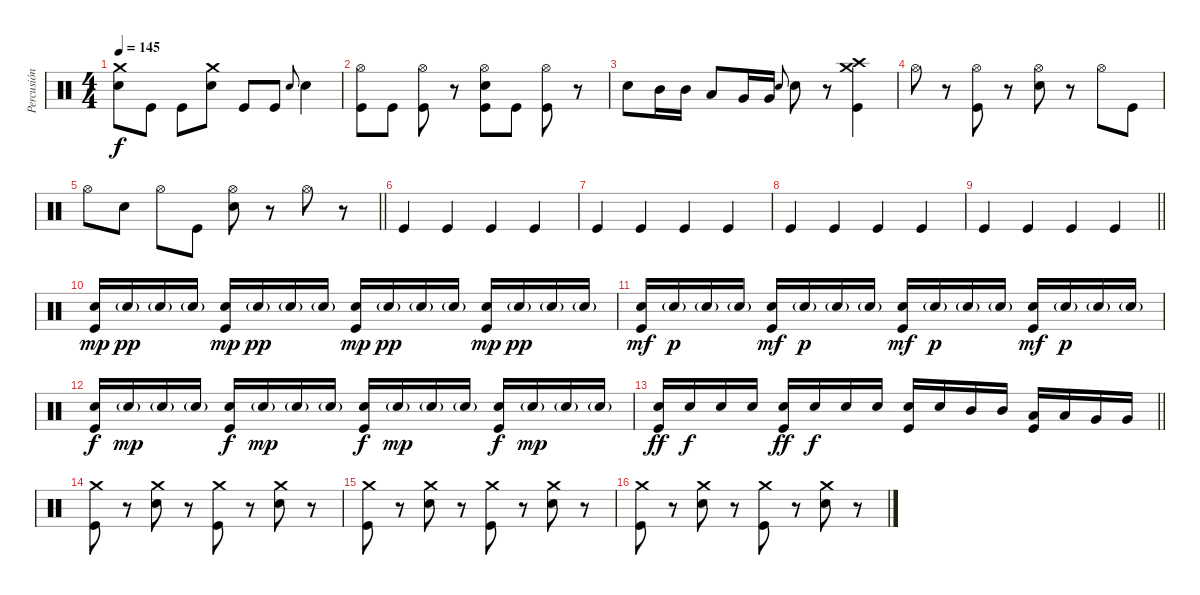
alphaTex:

\track ("Percusión" "Percusión") {instrument percussion}
\staff {score}
\articulation defaults
\ts (4 4)
\tempo 145
\clef neutral
\ks c
("Crash medium (hit)" "Snare (hit) 2").8{dy f} "Kick (hit)".8 "Kick (hit)".8 ("Crash medium (hit)" "Snare (hit) 2").8 "Kick (hit)".8 "Kick (hit)".8 "Snare (hit) 2".8{gr onbeat} "Snare (hit) 2".4 |
("Hi-Hat (open)" "Kick (hit)").8 "Kick (hit)".8 ("Hi-Hat (open)" "Kick (hit)").8 r.8 ("Hi-Hat (open)" "Snare (hit) 2" "Kick (hit)").8 "Kick (hit)".8 ("Hi-Hat (open)" "Kick (hit)").8 r.8 |
"Snare (hit) 2".8 "Mid Tom (hit)".16 "Mid Tom (hit)".16 "Low Tom (hit)".8 "Very Low Tom (hit)".16 "Very Low Tom (hit)".16 "Snare (hit) 2".8{gr onbeat} "Snare (hit) 2".8 r.8 ("Crash medium (hit)" "Crash high (hit)" "Kick (hit)").4 |
"Hi-Hat (open)".8 r.8 ("Hi-Hat (open)" "Kick (hit)").8 r.8 ("Hi-Hat (open)" "Snare (hit) 2").8 r.8 "Hi-Hat (open)".8 "Kick (hit)".8 |
\barLineRight lightlight "Hi-Hat (open)".8 "Snare (hit) 2".8 "Hi-Hat (open)".8 "Kick (hit)".8
("Hi-Hat (open)" "Snare (hit) 2").8 r.8 "Hi-Hat (open)".8 r.8 |
"Kick (hit)".4 "Kick (hit)".4 "Kick (hit)".4 "Kick (hit)".4 |
"Kick (hit)".4 "Kick (hit)".4 "Kick (hit)".4 "Kick (hit)".4 |
"Kick (hit)".4 "Kick (hit)".4 "Kick (hit)".4 "Kick (hit)".4 |
\barLineRight lightlight "Kick (hit)".4 "Kick (hit)".4 "Kick (hit)".4 "Kick (hit)".4
|
("Snare (hit) 2" "Kick (hit)").16{dy mp} "Snare (hit) 2"{g}.16{dy pp} "Snare (hit) 2"{g}.16 "Snare (hit) 2"{g}.16 ("Snare (hit) 2" "Kick (hit)").16{dy mp} "Snare (hit) 2"{g}.16{dy pp} "Snare (hit) 2"{g}.16 "Snare (hit) 2"{g}.16 ("Snare (hit) 2" "Kick (hit)").16{dy mp} "Snare (hit) 2"{g}.16{dy pp} "Snare (hit) 2"{g}.16 "Snare (hit) 2"{g}.16 ("Snare (hit) 2" "Kick (hit)").16{dy mp} "Snare (hit) 2"{g}.16{dy pp} "Snare (hit) 2"{g}.16 "Snare (hit) 2"{g}.16 |
("Snare (hit) 2" "Kick (hit)").16{dy mf} "Snare (hit) 2"{g}.16{dy p} "Snare (hit) 2"{g}.16 "Snare (hit) 2"{g}.16 ("Snare (hit) 2" "Kick (hit)").16{dy mf} "Snare (hit) 2"{g}.16{dy p} "Snare (hit) 2"{g}.16 "Snare (hit) 2"{g}.16 ("Snare (hit) 2" "Kick (hit)").16{dy mf} "Snare (hit) 2"{g}.16{dy p} "Snare (hit) 2"{g}.16 "Snare (hit) 2"{g}.16 ("Snare (hit) 2" "Kick (hit)").16{dy mf} "Snare (hit) 2"{g}.16{dy p} "Snare (hit) 2"{g}.16 "Snare (hit) 2"{g}.16 |
("Snare (hit) 2" "Kick (hit)").16{dy f} "Snare (hit) 2"{g}.16{dy mp} "Snare (hit) 2"{g}.16 "Snare (hit) 2"{g}.16 ("Snare (hit) 2" "Kick (hit)").16{dy f} "Snare (hit) 2"{g}.16{dy mp} "Snare (hit) 2"{g}.16 "Snare (hit) 2"{g}.16 ("Snare (hit) 2" "Kick (hit)").16{dy f} "Snare (hit) 2"{g}.16{dy mp} "Snare (hit) 2"{g}.16 "Snare (hit) 2"{g}.16 ("Snare (hit) 2" "Kick (hit)").16{dy f} "Snare (hit) 2"{g}.16{dy mp} "Snare (hit) 2"{g}.16 "Snare (hit) 2"{g}.16 |
\barLineRight lightlight
("Snare (hit) 2" "Kick (hit)").16{dy ff} "Snare (hit) 2".16{dy f} "Snare (hit) 2".16 "Snare (hit) 2".16 ("Snare (hit) 2" "Kick (hit)").16{dy ff} "Snare (hit) 2".16{dy f} "Snare (hit) 2".16 "Snare (hit) 2".16 ("Snare (hit) 2" "Kick (hit)").16 "Snare (hit) 2".16 "Mid Tom (hit)".16 "Mid Tom (hit)".16 ("Low Tom (hit)" "Kick (hit)").16 "Low Tom (hit)".16 "Very Low Tom (hit)".16 "Very Low Tom (hit)".16 |
("Crash medium (hit)" "Kick (hit)").8 r.8 ("Crash medium (hit)" "Snare (hit) 2").8 r.8 ("Crash medium (hit)" "Kick (hit)").8 r.8 ("Crash medium (hit)" "Snare (hit) 2").8 r.8 |
("Crash medium (hit)" "Kick (hit)").8 r.8 ("Crash medium (hit)" "Snare (hit) 2").8 r.8 ("Crash medium (hit)" "Kick (hit)").8 r.8 ("Crash medium (hit)" "Snare (hit) 2").8 r.8 |
("Crash medium (hit)" "Kick (hit)").8 r.8 ("Crash medium (hit)" "Snare (hit) 2").8 r.8 ("Crash medium (hit)" "Kick (hit)").8 r.8 ("Crash medium (hit)" "Snare (hit) 2").8 r.8
